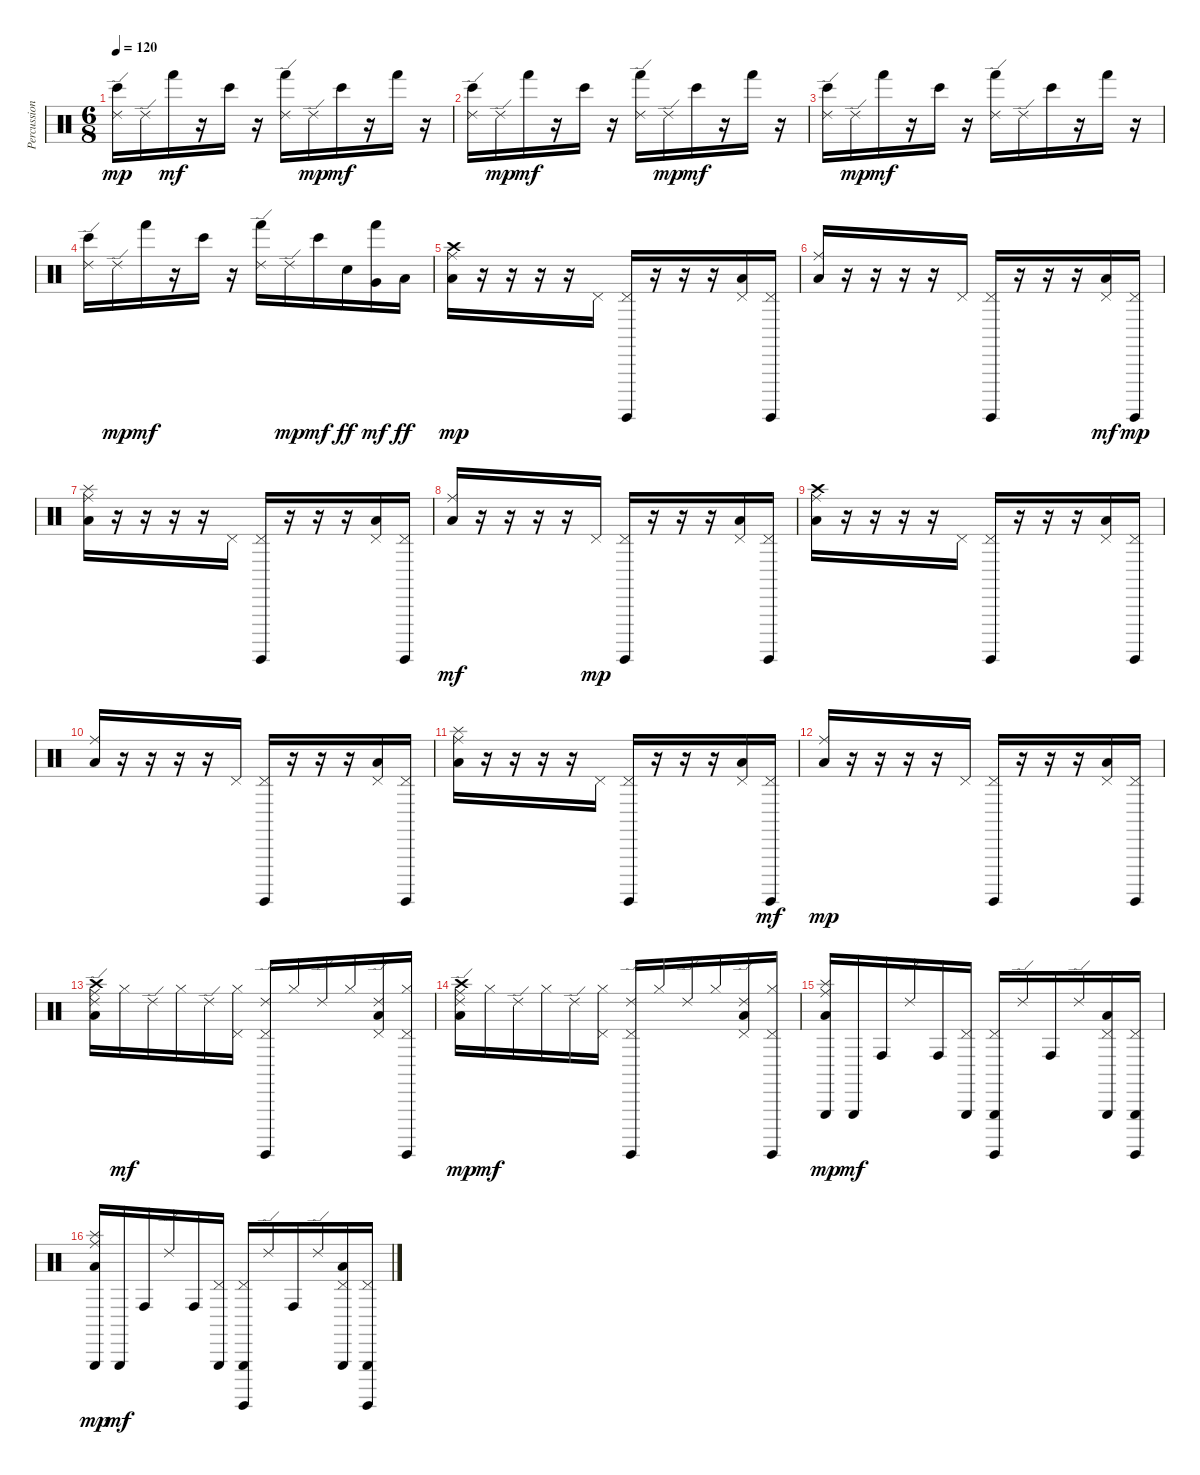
\track ("Percussions" "Percussion") {instrument percussion}
\staff {score}
\articulation defaults
\ts (6 8)
\tempo 120
\clef neutral
\ks c
("Ride (edge) 2" "Bongo High (hit)").16{dy mp} "Ride (edge) 2".16 "Hand (hit)".16{dy mf} r.16 "Bongo High (hit)".16 r.16 ("Ride (edge) 2" "Hand (hit)").16 "Ride (edge) 2".16{dy mp} "Bongo High (hit)".16{dy mf} r.16 "Hand (hit)".16 r.16 |
("Ride (edge) 2" "Bongo High (hit)").16 "Ride (edge) 2".16{dy mp} "Hand (hit)".16{dy mf} r.16 "Bongo High (hit)".16 r.16 ("Ride (edge) 2" "Hand (hit)").16 "Ride (edge) 2".16{dy mp} "Bongo High (hit)".16{dy mf} r.16 "Hand (hit)".16 r.16 |
("Ride (edge) 2" "Bongo High (hit)").16 "Ride (edge) 2".16{dy mp} "Hand (hit)".16{dy mf} r.16 "Bongo High (hit)".16 r.16 ("Ride (edge) 2" "Hand (hit)").16 "Ride (edge) 2".16 "Bongo High (hit)".16 r.16 "Hand (hit)".16 r.16 |
("Ride (edge) 2" "Bongo High (hit)").16 "Ride (edge) 2".16{dy mp} "Hand (hit)".16{dy mf} r.16 "Bongo High (hit)".16 r.16 ("Ride (edge) 2" "Hand (hit)").16 "Ride (edge) 2".16{dy mp} "Bongo High (hit)".16{dy mf} "Electric Snare (hit)".16{dy ff} ("Very Low Tom (hit)" "Hand (hit)").16{dy mf} "Low Tom (hit)".16{dy ff} |
("Low Tom (hit)" "Ride (middle)" "Crash high (hit)").16{dy mp} r.16 r.16 r.16 r.16 "Pedal Hi-Hat (hit)".16 ("Surdo (hit)" "Pedal Hi-Hat (hit)").16 r.16 r.16 r.16 ("Low Tom (hit)" "Pedal Hi-Hat (hit)").16 ("Surdo (hit)" "Pedal Hi-Hat (hit)").16 |
("Low Tom (hit)" "Ride (middle)").16 r.16 r.16 r.16 r.16 "Pedal Hi-Hat (hit)".16 ("Surdo (hit)" "Pedal Hi-Hat (hit)").16 r.16 r.16 r.16 ("Low Tom (hit)" "Pedal Hi-Hat (hit)").16{dy mf} ("Surdo (hit)" "Pedal Hi-Hat (hit)").16{dy mp} |
("Low Tom (hit)" "Ride (middle)" "Splash (hit)").16 r.16 r.16 r.16 r.16 "Pedal Hi-Hat (hit)".16 ("Surdo (hit)" "Pedal Hi-Hat (hit)").16 r.16 r.16 r.16 ("Low Tom (hit)" "Pedal Hi-Hat (hit)").16 ("Surdo (hit)" "Pedal Hi-Hat (hit)").16 |
("Low Tom (hit)" "Ride (middle)").16{dy mf} r.16 r.16 r.16 r.16 "Pedal Hi-Hat (hit)".16{dy mp} ("Surdo (hit)" "Pedal Hi-Hat (hit)").16 r.16 r.16 r.16 ("Low Tom (hit)" "Pedal Hi-Hat (hit)").16 ("Surdo (hit)" "Pedal Hi-Hat (hit)").16 |
("Low Tom (hit)" "Ride (middle)" "Crash high (hit)").16 r.16 r.16 r.16 r.16 "Pedal Hi-Hat (hit)".16 ("Surdo (hit)" "Pedal Hi-Hat (hit)").16 r.16 r.16 r.16 ("Low Tom (hit)" "Pedal Hi-Hat (hit)").16 ("Surdo (hit)" "Pedal Hi-Hat (hit)").16 |
("Low Tom (hit)" "Ride (middle)").16 r.16 r.16 r.16 r.16 "Pedal Hi-Hat (hit)".16 ("Surdo (hit)" "Pedal Hi-Hat (hit)").16 r.16 r.16 r.16 ("Low Tom (hit)" "Pedal Hi-Hat (hit)").16 ("Surdo (hit)" "Pedal Hi-Hat (hit)").16 |
("Low Tom (hit)" "Ride (middle)" "Splash (hit)").16 r.16 r.16 r.16 r.16 "Pedal Hi-Hat (hit)".16 ("Surdo (hit)" "Pedal Hi-Hat (hit)").16 r.16 r.16 r.16 ("Low Tom (hit)" "Pedal Hi-Hat (hit)").16 ("Surdo (hit)" "Pedal Hi-Hat (hit)").16{dy mf} |
("Low Tom (hit)" "Ride (middle)").16{dy mp} r.16 r.16 r.16 r.16 "Pedal Hi-Hat (hit)".16 ("Surdo (hit)" "Pedal Hi-Hat (hit)").16 r.16 r.16 r.16 ("Low Tom (hit)" "Pedal Hi-Hat (hit)").16 ("Surdo (hit)" "Pedal Hi-Hat (hit)").16 |
("Low Tom (hit)" "Ride (middle)" "Ride (edge) 2" "Crash high (hit)").16 "Hi-Hat (closed)".16{dy mf} "Ride (edge) 2".16 "Hi-Hat (closed)".16 "Ride (edge) 2".16 ("Pedal Hi-Hat (hit)" "Hi-Hat (closed)").16 ("Surdo (hit)" "Pedal Hi-Hat (hit)" "Ride (edge) 2").16 "Hi-Hat (closed)".16 "Ride (edge) 2".16 "Hi-Hat (closed)".16 ("Low Tom (hit)" "Pedal Hi-Hat (hit)" "Ride (edge) 2").16 ("Surdo (hit)" "Pedal Hi-Hat (hit)" "Hi-Hat (closed)").16 |
("Low Tom (hit)" "Ride (middle)" "Ride (edge) 2" "Crash high (hit)").16{dy mp} "Hi-Hat (closed)".16{dy mf} "Ride (edge) 2".16 "Hi-Hat (closed)".16 "Ride (edge) 2".16 ("Pedal Hi-Hat (hit)" "Hi-Hat (closed)").16 ("Surdo (hit)" "Pedal Hi-Hat (hit)" "Ride (edge) 2").16 "Hi-Hat (closed)".16 "Ride (edge) 2".16 "Hi-Hat (closed)".16 ("Low Tom (hit)" "Pedal Hi-Hat (hit)" "Ride (edge) 2").16 ("Surdo (hit)" "Pedal Hi-Hat (hit)" "Hi-Hat (closed)").16 |
("Low Tom (hit)" "Ride (middle)" "Triangle (hit)" "Splash (hit)").16{dy mp} "Triangle (hit)".16{dy mf} "Conga high (hit)".16 "Ride (edge) 2".16 "Conga high (hit)".16 ("Pedal Hi-Hat (hit)" "Triangle (hit)").16 ("Surdo (hit)" "Pedal Hi-Hat (hit)" "Triangle (hit)").16 "Ride (edge) 2".16 "Conga high (hit)".16 "Ride (edge) 2".16 ("Low Tom (hit)" "Pedal Hi-Hat (hit)" "Triangle (hit)").16 ("Surdo (hit)" "Pedal Hi-Hat (hit)" "Triangle (hit)").16 |
("Low Tom (hit)" "Ride (middle)" "Triangle (hit)" "Splash (hit)").16{dy mp} "Triangle (hit)".16{dy mf} "Conga high (hit)".16 "Ride (edge) 2".16 "Conga high (hit)".16 ("Pedal Hi-Hat (hit)" "Triangle (hit)").16 ("Surdo (hit)" "Pedal Hi-Hat (hit)" "Triangle (hit)").16 "Ride (edge) 2".16 "Conga high (hit)".16 "Ride (edge) 2".16 ("Low Tom (hit)" "Pedal Hi-Hat (hit)" "Triangle (hit)").16 ("Surdo (hit)" "Pedal Hi-Hat (hit)" "Triangle (hit)").16
